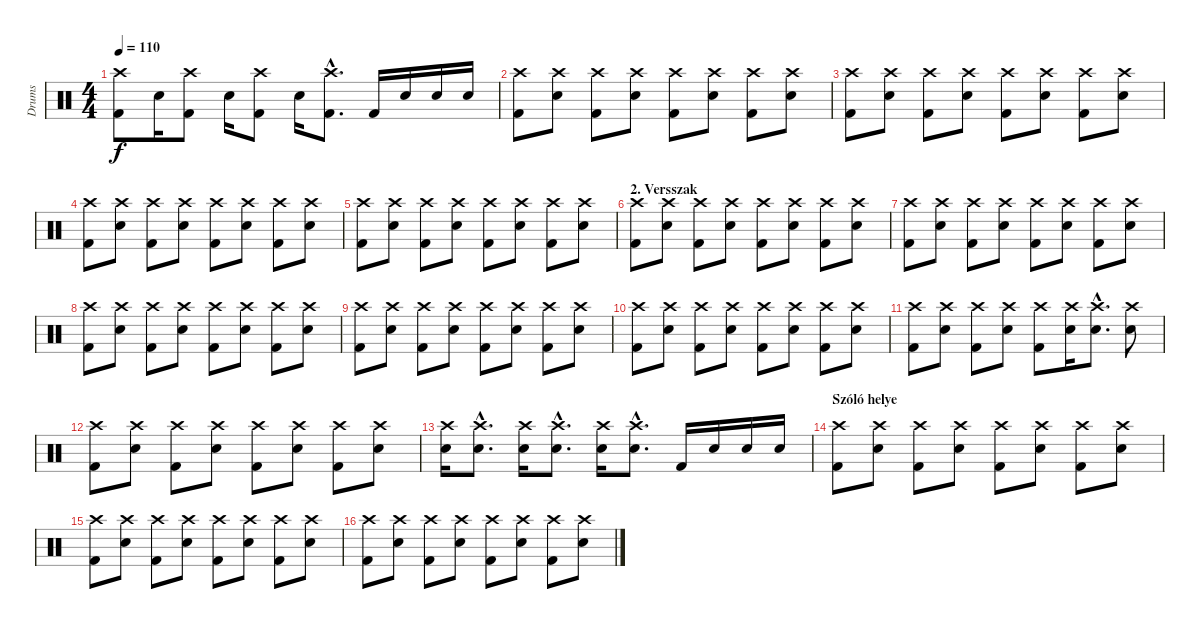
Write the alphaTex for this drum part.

\track ("Drums" "Drums") {instrument percussion}
\staff {score}
\articulation defaults
\ts (4 4)
\tempo 110
\clef neutral
\ks c
("Crash high (hit)" "Kick (hit) 2").8{dy f} "Snare (hit) 2".16 ("Crash high (hit)" "Kick (hit) 2").8 "Snare (hit) 2".16 ("Crash high (hit)" "Kick (hit) 2").8 "Snare (hit) 2".16 ("Crash high (hit)"{hac} "Kick (hit) 2"{hac}).8{d} "Kick (hit) 2".16 "Snare (hit) 2".16 "Snare (hit) 2".16 "Snare (hit) 2".16 |
("Crash high (hit)" "Kick (hit) 2").8 ("Crash high (hit)" "Snare (hit) 2").8 ("Crash high (hit)" "Kick (hit) 2").8 ("Crash high (hit)" "Snare (hit) 2").8 ("Crash high (hit)" "Kick (hit) 2").8 ("Crash high (hit)" "Snare (hit) 2").8 ("Crash high (hit)" "Kick (hit) 2").8 ("Crash high (hit)" "Snare (hit) 2").8 |
("Crash high (hit)" "Kick (hit) 2").8 ("Crash high (hit)" "Snare (hit) 2").8 ("Crash high (hit)" "Kick (hit) 2").8 ("Crash high (hit)" "Snare (hit) 2").8 ("Crash high (hit)" "Kick (hit) 2").8 ("Crash high (hit)" "Snare (hit) 2").8 ("Crash high (hit)" "Kick (hit) 2").8 ("Crash high (hit)" "Snare (hit) 2").8 |
("Crash high (hit)" "Kick (hit) 2").8 ("Crash high (hit)" "Snare (hit) 2").8 ("Crash high (hit)" "Kick (hit) 2").8 ("Crash high (hit)" "Snare (hit) 2").8 ("Crash high (hit)" "Kick (hit) 2").8 ("Crash high (hit)" "Snare (hit) 2").8 ("Crash high (hit)" "Kick (hit) 2").8 ("Crash high (hit)" "Snare (hit) 2").8 |
("Crash high (hit)" "Kick (hit) 2").8 ("Crash high (hit)" "Snare (hit) 2").8 ("Crash high (hit)" "Kick (hit) 2").8 ("Crash high (hit)" "Snare (hit) 2").8 ("Crash high (hit)" "Kick (hit) 2").8 ("Crash high (hit)" "Snare (hit) 2").8 ("Crash high (hit)" "Kick (hit) 2").8 ("Crash high (hit)" "Snare (hit) 2").8 |
\section ("" "2. Versszak")
("Crash high (hit)" "Kick (hit) 2").8 ("Crash high (hit)" "Snare (hit) 2").8 ("Crash high (hit)" "Kick (hit) 2").8 ("Crash high (hit)" "Snare (hit) 2").8 ("Crash high (hit)" "Kick (hit) 2").8 ("Crash high (hit)" "Snare (hit) 2").8 ("Crash high (hit)" "Kick (hit) 2").8 ("Crash high (hit)" "Snare (hit) 2").8 |
("Crash high (hit)" "Kick (hit) 2").8 ("Crash high (hit)" "Snare (hit) 2").8 ("Crash high (hit)" "Kick (hit) 2").8 ("Crash high (hit)" "Snare (hit) 2").8 ("Crash high (hit)" "Kick (hit) 2").8 ("Crash high (hit)" "Snare (hit) 2").8 ("Crash high (hit)" "Kick (hit) 2").8 ("Crash high (hit)" "Snare (hit) 2").8 |
("Crash high (hit)" "Kick (hit) 2").8 ("Crash high (hit)" "Snare (hit) 2").8 ("Crash high (hit)" "Kick (hit) 2").8 ("Crash high (hit)" "Snare (hit) 2").8 ("Crash high (hit)" "Kick (hit) 2").8 ("Crash high (hit)" "Snare (hit) 2").8 ("Crash high (hit)" "Kick (hit) 2").8 ("Crash high (hit)" "Snare (hit) 2").8 |
("Crash high (hit)" "Kick (hit) 2").8 ("Crash high (hit)" "Snare (hit) 2").8 ("Crash high (hit)" "Kick (hit) 2").8 ("Crash high (hit)" "Snare (hit) 2").8 ("Crash high (hit)" "Kick (hit) 2").8 ("Crash high (hit)" "Snare (hit) 2").8 ("Crash high (hit)" "Kick (hit) 2").8 ("Crash high (hit)" "Snare (hit) 2").8 |
("Crash high (hit)" "Kick (hit) 2").8 ("Crash high (hit)" "Snare (hit) 2").8 ("Crash high (hit)" "Kick (hit) 2").8 ("Crash high (hit)" "Snare (hit) 2").8 ("Crash high (hit)" "Kick (hit) 2").8 ("Crash high (hit)" "Snare (hit) 2").8 ("Crash high (hit)" "Kick (hit) 2").8 ("Crash high (hit)" "Snare (hit) 2").8 |
("Crash high (hit)" "Kick (hit) 2").8 ("Crash high (hit)" "Snare (hit) 2").8 ("Crash high (hit)" "Kick (hit) 2").8 ("Crash high (hit)" "Snare (hit) 2").8 ("Crash high (hit)" "Kick (hit) 2").8 ("Crash high (hit)" "Snare (hit) 2").16 ("Crash high (hit)"{hac} "Snare (hit) 2"{hac}).8{d} ("Crash high (hit)" "Snare (hit) 2").8 |
("Crash high (hit)" "Kick (hit) 2").8 ("Crash high (hit)" "Snare (hit) 2").8 ("Crash high (hit)" "Kick (hit) 2").8 ("Crash high (hit)" "Snare (hit) 2").8 ("Crash high (hit)" "Kick (hit) 2").8 ("Crash high (hit)" "Snare (hit) 2").8 ("Crash high (hit)" "Kick (hit) 2").8 ("Crash high (hit)" "Snare (hit) 2").8 |
("Crash high (hit)" "Snare (hit) 2").16 ("Crash high (hit)"{hac} "Snare (hit) 2"{hac}).8{d} ("Crash high (hit)" "Snare (hit) 2").16 ("Crash high (hit)"{hac} "Snare (hit) 2"{hac}).8{d} ("Crash high (hit)" "Snare (hit) 2").16 ("Crash high (hit)"{hac} "Snare (hit) 2"{hac}).8{d} "Kick (hit) 2".16 "Snare (hit) 2".16 "Snare (hit) 2".16 "Snare (hit) 2".16 |
\section ("" "Szóló helye")
("Crash high (hit)" "Kick (hit) 2").8 ("Crash high (hit)" "Snare (hit) 2").8 ("Crash high (hit)" "Kick (hit) 2").8 ("Crash high (hit)" "Snare (hit) 2").8 ("Crash high (hit)" "Kick (hit) 2").8 ("Crash high (hit)" "Snare (hit) 2").8 ("Crash high (hit)" "Kick (hit) 2").8 ("Crash high (hit)" "Snare (hit) 2").8 |
("Crash high (hit)" "Kick (hit) 2").8 ("Crash high (hit)" "Snare (hit) 2").8 ("Crash high (hit)" "Kick (hit) 2").8 ("Crash high (hit)" "Snare (hit) 2").8 ("Crash high (hit)" "Kick (hit) 2").8 ("Crash high (hit)" "Snare (hit) 2").8 ("Crash high (hit)" "Kick (hit) 2").8 ("Crash high (hit)" "Snare (hit) 2").8 |
("Crash high (hit)" "Kick (hit) 2").8 ("Crash high (hit)" "Snare (hit) 2").8 ("Crash high (hit)" "Kick (hit) 2").8 ("Crash high (hit)" "Snare (hit) 2").8 ("Crash high (hit)" "Kick (hit) 2").8 ("Crash high (hit)" "Snare (hit) 2").8 ("Crash high (hit)" "Kick (hit) 2").8 ("Crash high (hit)" "Snare (hit) 2").8
